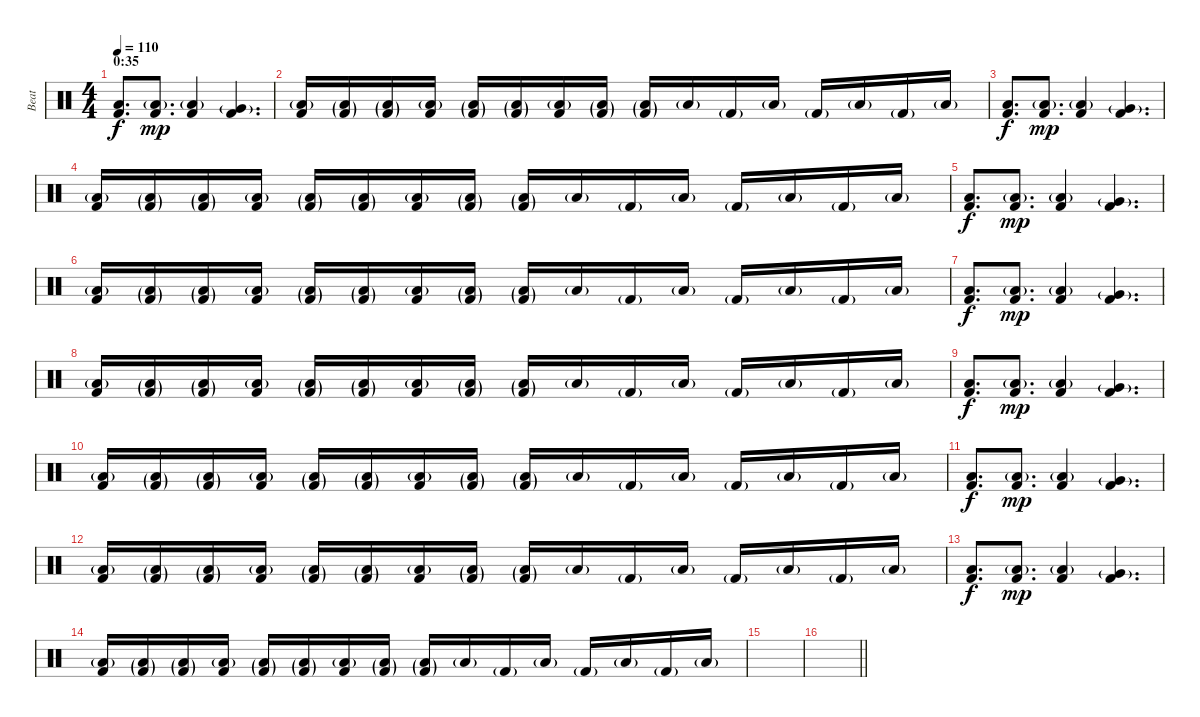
\track ("Beat" "Beat") {instrument percussion}
\staff {score}
\articulation defaults
\ts (4 4)
\section ("" "0:35")
\tempo 110
\clef neutral
\ks c
("Low Floor Tom (hit)" "Kick (hit) 2").8{d dy f} ("Low Floor Tom (hit)"{g} "Kick (hit) 2").8{d dy mp} ("Low Floor Tom (hit)"{g} "Kick (hit) 2").4 ("Very Low Tom (hit)"{g} "Kick (hit) 2").4{d} |
("Low Floor Tom (hit)"{g} "Kick (hit) 2").16 ("Low Floor Tom (hit)"{g} "Kick (hit) 2"{g}).16 ("Low Floor Tom (hit)"{g} "Kick (hit) 2"{g}).16 ("Low Floor Tom (hit)"{g} "Kick (hit) 2").16 ("Low Floor Tom (hit)"{g} "Kick (hit) 2"{g}).16 ("Low Floor Tom (hit)"{g} "Kick (hit) 2"{g}).16 ("Low Floor Tom (hit)"{g} "Kick (hit) 2").16 ("Low Floor Tom (hit)"{g} "Kick (hit) 2"{g}).16 ("Low Floor Tom (hit)"{g} "Kick (hit) 2"{g}).16 "Low Floor Tom (hit)"{g}.16 "Kick (hit) 2"{g}.16 "Low Floor Tom (hit)"{g}.16 "Kick (hit) 2"{g}.16 "Low Floor Tom (hit)"{g}.16 "Kick (hit) 2"{g}.16 "Low Floor Tom (hit)"{g}.16 |
("Low Floor Tom (hit)" "Kick (hit) 2").8{d dy f} ("Low Floor Tom (hit)"{g} "Kick (hit) 2").8{d dy mp} ("Low Floor Tom (hit)"{g} "Kick (hit) 2").4 ("Very Low Tom (hit)"{g} "Kick (hit) 2").4{d} |
("Low Floor Tom (hit)"{g} "Kick (hit) 2").16 ("Low Floor Tom (hit)"{g} "Kick (hit) 2"{g}).16 ("Low Floor Tom (hit)"{g} "Kick (hit) 2"{g}).16 ("Low Floor Tom (hit)"{g} "Kick (hit) 2").16 ("Low Floor Tom (hit)"{g} "Kick (hit) 2"{g}).16 ("Low Floor Tom (hit)"{g} "Kick (hit) 2"{g}).16 ("Low Floor Tom (hit)"{g} "Kick (hit) 2").16 ("Low Floor Tom (hit)"{g} "Kick (hit) 2"{g}).16 ("Low Floor Tom (hit)"{g} "Kick (hit) 2"{g}).16 "Low Floor Tom (hit)"{g}.16 "Kick (hit) 2"{g}.16 "Low Floor Tom (hit)"{g}.16 "Kick (hit) 2"{g}.16 "Low Floor Tom (hit)"{g}.16 "Kick (hit) 2"{g}.16 "Low Floor Tom (hit)"{g}.16 |
("Low Floor Tom (hit)" "Kick (hit) 2").8{d dy f} ("Low Floor Tom (hit)"{g} "Kick (hit) 2").8{d dy mp} ("Low Floor Tom (hit)"{g} "Kick (hit) 2").4 ("Very Low Tom (hit)"{g} "Kick (hit) 2").4{d} |
("Low Floor Tom (hit)"{g} "Kick (hit) 2").16 ("Low Floor Tom (hit)"{g} "Kick (hit) 2"{g}).16 ("Low Floor Tom (hit)"{g} "Kick (hit) 2"{g}).16 ("Low Floor Tom (hit)"{g} "Kick (hit) 2").16 ("Low Floor Tom (hit)"{g} "Kick (hit) 2"{g}).16 ("Low Floor Tom (hit)"{g} "Kick (hit) 2"{g}).16 ("Low Floor Tom (hit)"{g} "Kick (hit) 2").16 ("Low Floor Tom (hit)"{g} "Kick (hit) 2"{g}).16 ("Low Floor Tom (hit)"{g} "Kick (hit) 2"{g}).16 "Low Floor Tom (hit)"{g}.16 "Kick (hit) 2"{g}.16 "Low Floor Tom (hit)"{g}.16 "Kick (hit) 2"{g}.16 "Low Floor Tom (hit)"{g}.16 "Kick (hit) 2"{g}.16 "Low Floor Tom (hit)"{g}.16 |
("Low Floor Tom (hit)" "Kick (hit) 2").8{d dy f} ("Low Floor Tom (hit)"{g} "Kick (hit) 2").8{d dy mp} ("Low Floor Tom (hit)"{g} "Kick (hit) 2").4 ("Very Low Tom (hit)"{g} "Kick (hit) 2").4{d} |
("Low Floor Tom (hit)"{g} "Kick (hit) 2").16 ("Low Floor Tom (hit)"{g} "Kick (hit) 2"{g}).16 ("Low Floor Tom (hit)"{g} "Kick (hit) 2"{g}).16 ("Low Floor Tom (hit)"{g} "Kick (hit) 2").16 ("Low Floor Tom (hit)"{g} "Kick (hit) 2"{g}).16 ("Low Floor Tom (hit)"{g} "Kick (hit) 2"{g}).16 ("Low Floor Tom (hit)"{g} "Kick (hit) 2").16 ("Low Floor Tom (hit)"{g} "Kick (hit) 2"{g}).16 ("Low Floor Tom (hit)"{g} "Kick (hit) 2"{g}).16 "Low Floor Tom (hit)"{g}.16 "Kick (hit) 2"{g}.16 "Low Floor Tom (hit)"{g}.16 "Kick (hit) 2"{g}.16 "Low Floor Tom (hit)"{g}.16 "Kick (hit) 2"{g}.16 "Low Floor Tom (hit)"{g}.16 |
("Low Floor Tom (hit)" "Kick (hit) 2").8{d dy f} ("Low Floor Tom (hit)"{g} "Kick (hit) 2").8{d dy mp} ("Low Floor Tom (hit)"{g} "Kick (hit) 2").4 ("Very Low Tom (hit)"{g} "Kick (hit) 2").4{d} |
("Low Floor Tom (hit)"{g} "Kick (hit) 2").16 ("Low Floor Tom (hit)"{g} "Kick (hit) 2"{g}).16 ("Low Floor Tom (hit)"{g} "Kick (hit) 2"{g}).16 ("Low Floor Tom (hit)"{g} "Kick (hit) 2").16 ("Low Floor Tom (hit)"{g} "Kick (hit) 2"{g}).16 ("Low Floor Tom (hit)"{g} "Kick (hit) 2"{g}).16 ("Low Floor Tom (hit)"{g} "Kick (hit) 2").16 ("Low Floor Tom (hit)"{g} "Kick (hit) 2"{g}).16 ("Low Floor Tom (hit)"{g} "Kick (hit) 2"{g}).16 "Low Floor Tom (hit)"{g}.16 "Kick (hit) 2"{g}.16 "Low Floor Tom (hit)"{g}.16 "Kick (hit) 2"{g}.16 "Low Floor Tom (hit)"{g}.16 "Kick (hit) 2"{g}.16 "Low Floor Tom (hit)"{g}.16 |
("Low Floor Tom (hit)" "Kick (hit) 2").8{d dy f} ("Low Floor Tom (hit)"{g} "Kick (hit) 2").8{d dy mp} ("Low Floor Tom (hit)"{g} "Kick (hit) 2").4 ("Very Low Tom (hit)"{g} "Kick (hit) 2").4{d} |
("Low Floor Tom (hit)"{g} "Kick (hit) 2").16 ("Low Floor Tom (hit)"{g} "Kick (hit) 2"{g}).16 ("Low Floor Tom (hit)"{g} "Kick (hit) 2"{g}).16 ("Low Floor Tom (hit)"{g} "Kick (hit) 2").16 ("Low Floor Tom (hit)"{g} "Kick (hit) 2"{g}).16 ("Low Floor Tom (hit)"{g} "Kick (hit) 2"{g}).16 ("Low Floor Tom (hit)"{g} "Kick (hit) 2").16 ("Low Floor Tom (hit)"{g} "Kick (hit) 2"{g}).16 ("Low Floor Tom (hit)"{g} "Kick (hit) 2"{g}).16 "Low Floor Tom (hit)"{g}.16 "Kick (hit) 2"{g}.16 "Low Floor Tom (hit)"{g}.16 "Kick (hit) 2"{g}.16 "Low Floor Tom (hit)"{g}.16 "Kick (hit) 2"{g}.16 "Low Floor Tom (hit)"{g}.16 |
("Low Floor Tom (hit)" "Kick (hit) 2").8{d dy f} ("Low Floor Tom (hit)"{g} "Kick (hit) 2").8{d dy mp} ("Low Floor Tom (hit)"{g} "Kick (hit) 2").4 ("Very Low Tom (hit)"{g} "Kick (hit) 2").4{d} |
("Low Floor Tom (hit)"{g} "Kick (hit) 2").16 ("Low Floor Tom (hit)"{g} "Kick (hit) 2"{g}).16 ("Low Floor Tom (hit)"{g} "Kick (hit) 2"{g}).16 ("Low Floor Tom (hit)"{g} "Kick (hit) 2").16 ("Low Floor Tom (hit)"{g} "Kick (hit) 2"{g}).16 ("Low Floor Tom (hit)"{g} "Kick (hit) 2"{g}).16 ("Low Floor Tom (hit)"{g} "Kick (hit) 2").16 ("Low Floor Tom (hit)"{g} "Kick (hit) 2"{g}).16 ("Low Floor Tom (hit)"{g} "Kick (hit) 2"{g}).16 "Low Floor Tom (hit)"{g}.16 "Kick (hit) 2"{g}.16 "Low Floor Tom (hit)"{g}.16 "Kick (hit) 2"{g}.16 "Low Floor Tom (hit)"{g}.16 "Kick (hit) 2"{g}.16 "Low Floor Tom (hit)"{g}.16 |
|
\barLineRight lightlight
